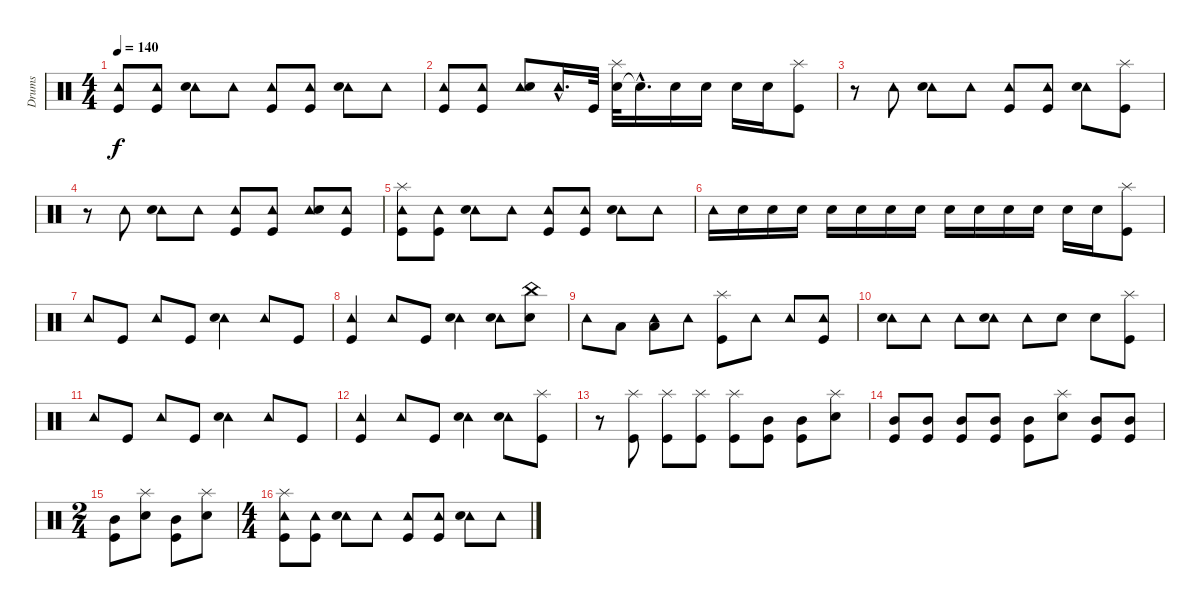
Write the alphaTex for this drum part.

\track ("Drums" "Drums") {instrument percussion}
\staff {score}
\articulation defaults
\ts (4 4)
\tempo 140
\clef neutral
\ks c
("Tambourine (hit)" "Kick (hit)").8{dy f} ("Tambourine (hit)" "Kick (hit)").8 ("Tambourine (hit)" "Snare (hit) 2").8 "Tambourine (hit)".8 ("Tambourine (hit)" "Kick (hit)").8 ("Tambourine (hit)" "Kick (hit)").8 ("Tambourine (hit)" "Snare (hit) 2").8 "Tambourine (hit)".8 |
("Tambourine (hit)" "Kick (hit)").8 ("Tambourine (hit)" "Kick (hit)").8 ("Tambourine (hit)" "Snare (hit) 2").8 "Tambourine (hit)"{hac}.16{d} "Kick (hit)".32 ("Snare (hit) 2" "Splash (hit)").32 "Snare (hit)"{hac t}.16{d} "Snare (hit) 2".16 "Snare (hit) 2".16 "Snare (hit) 2".16 "Snare (hit) 2".16 ("Kick (hit)" "Splash (hit)").8 |
r.8 "Tambourine (hit)".8 ("Tambourine (hit)" "Snare (hit) 2").8 "Tambourine (hit)".8 ("Tambourine (hit)" "Kick (hit)").8 ("Tambourine (hit)" "Kick (hit)").8 ("Tambourine (hit)" "Snare (hit) 2").8 ("Kick (hit)" "Splash (hit)").8 |
r.8 "Tambourine (hit)".8 ("Tambourine (hit)" "Snare (hit) 2").8 "Tambourine (hit)".8 ("Tambourine (hit)" "Kick (hit)").8 ("Tambourine (hit)" "Kick (hit)").8 ("Tambourine (hit)" "Snare (hit) 2").8 ("Tambourine (hit)" "Kick (hit)").8 |
("Tambourine (hit)" "Kick (hit)" "Splash (hit)").8 ("Tambourine (hit)" "Kick (hit)").8 ("Tambourine (hit)" "Snare (hit) 2").8 "Tambourine (hit)".8 ("Tambourine (hit)" "Kick (hit)").8 ("Tambourine (hit)" "Kick (hit)").8 ("Tambourine (hit)" "Snare (hit) 2").8 "Tambourine (hit)".8 |
"Tambourine (hit)".16 "Snare (hit) 2".16 "Snare (hit) 2".16 "Snare (hit) 2".16 "Snare (hit) 2".16 "Snare (hit) 2".16 "Snare (hit) 2".16 "Snare (hit) 2".16 "Snare (hit) 2".16 "Snare (hit) 2".16 "Snare (hit) 2".16 "Snare (hit) 2".16 "Snare (hit) 2".16 "Snare (hit) 2".16 ("Kick (hit)" "Splash (hit)").8 |
"Tambourine (hit)".8 "Kick (hit)".8 "Tambourine (hit)".8 "Kick (hit)".8 ("Tambourine (hit)" "Snare (hit) 2").4 "Tambourine (hit)".8 "Kick (hit)".8 |
("Tambourine (hit)" "Kick (hit)").4 "Tambourine (hit)".8 "Kick (hit)".8 ("Tambourine (hit)" "Snare (hit) 2").4 ("Tambourine (hit)" "Snare (hit) 2").8 ("Snare (hit) 2" "China (hit)").8 |
"Tambourine (hit)".8 "Low Tom (hit)".8 ("Tambourine (hit)" "Low Tom (hit)").8 "Tambourine (hit)".8 ("Kick (hit)" "Splash (hit)").8 "Tambourine (hit)".8 "Tambourine (hit)".8 ("Tambourine (hit)" "Kick (hit)").8 |
("Tambourine (hit)" "Snare (hit) 2").8 "Tambourine (hit)".8 "Tambourine (hit)".8 ("Tambourine (hit)" "Snare (hit) 2").8 "Tambourine (hit)".8 "Snare (hit) 2".8 "Snare (hit) 2".8 ("Kick (hit)" "Splash (hit)").8 |
"Tambourine (hit)".8 "Kick (hit)".8 "Tambourine (hit)".8 "Kick (hit)".8 ("Tambourine (hit)" "Snare (hit) 2").4 "Tambourine (hit)".8 "Kick (hit)".8 |
("Tambourine (hit)" "Kick (hit)").4 "Tambourine (hit)".8 "Kick (hit)".8 ("Tambourine (hit)" "Snare (hit) 2").4 ("Tambourine (hit)" "Snare (hit) 2").8 ("Kick (hit)" "Splash (hit)").8 |
r.8 ("Kick (hit)" "Splash (hit)").8 ("Kick (hit)" "Splash (hit)").8 ("Kick (hit)" "Splash (hit)").8 ("Kick (hit)" "Splash (hit)").8 ("Kick (hit)" "Mid Tom (hit)").8 ("Kick (hit)" "Mid Tom (hit)").8 ("Snare (hit) 2" "Splash (hit)").8 |
("Kick (hit)" "Mid Tom (hit)").8 ("Kick (hit)" "Mid Tom (hit)").8 ("Kick (hit)" "Mid Tom (hit)").8 ("Kick (hit)" "Mid Tom (hit)").8 ("Kick (hit)" "Mid Tom (hit)").8 ("Snare (hit) 2" "Splash (hit)").8 ("Kick (hit)" "Mid Tom (hit)").8 ("Kick (hit)" "Mid Tom (hit)").8 |
\ts (2 4)
("Kick (hit)" "Mid Tom (hit)").8 ("Snare (hit) 2" "Splash (hit)").8 ("Kick (hit)" "Mid Tom (hit)").8 ("Snare (hit) 2" "Splash (hit)").8 |
\ts (4 4)
("Tambourine (hit)" "Kick (hit)" "Splash (hit)").8 ("Tambourine (hit)" "Kick (hit)").8 ("Tambourine (hit)" "Snare (hit) 2").8 "Tambourine (hit)".8 ("Tambourine (hit)" "Kick (hit)").8 ("Tambourine (hit)" "Kick (hit)").8 ("Tambourine (hit)" "Snare (hit) 2").8 "Tambourine (hit)".8
